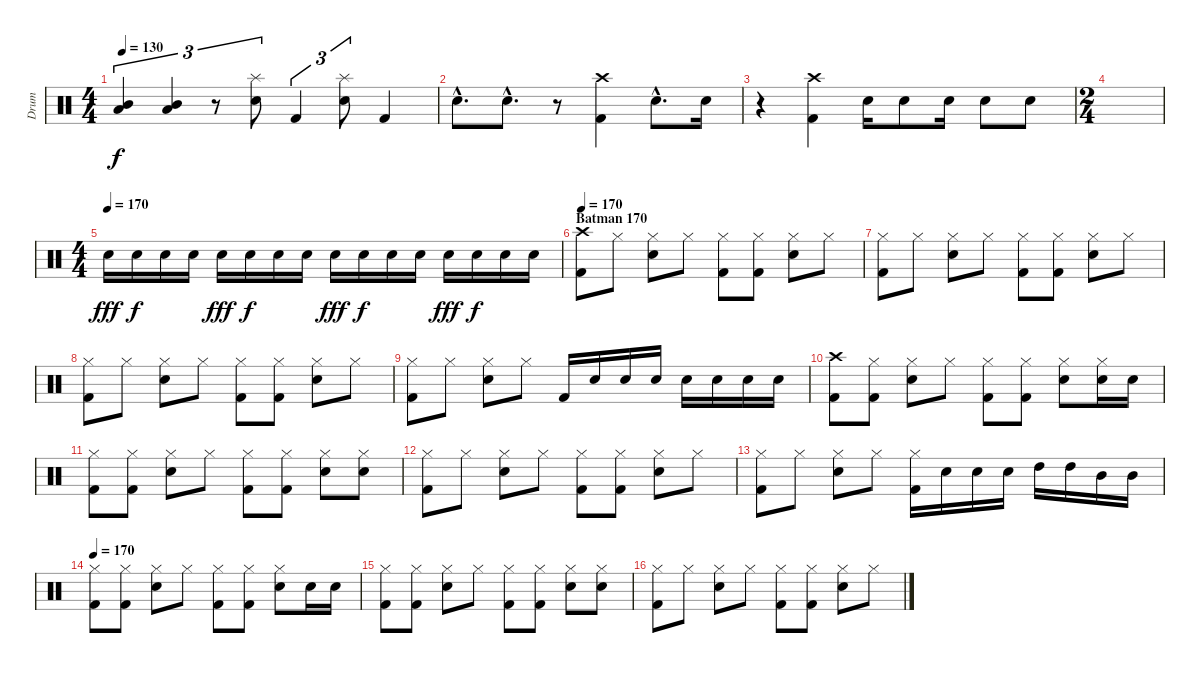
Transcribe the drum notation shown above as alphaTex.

\track ("Drum" "Drum") {instrument percussion}
\staff {score}
\articulation defaults
\ts (4 4)
\tempo 130
\clef neutral
\ks c
("Mid Tom (hit)" "Low Tom (hit)").4{tu (3 2) dy f} ("Mid Tom (hit)" "Low Tom (hit)").4{tu (3 2)} r.8{tu (3 2)} ("Splash (hit)" "Electric Snare (hit)").8{tu (3 2)} "Kick (hit) 2".4{tu (3 2)} ("Splash (hit)" "Electric Snare (hit)").8{tu (3 2)} "Kick (hit) 2".4 |
"Electric Snare (hit)"{hac}.8{d} "Electric Snare (hit)"{hac}.8{d} r.8 ("Crash high (hit)" "Kick (hit) 2").4 "Electric Snare (hit)"{hac}.8{d} "Electric Snare (hit)".16 |
r.4 ("Crash high (hit)" "Kick (hit) 2").4 "Electric Snare (hit)".16 "Electric Snare (hit)".8 "Electric Snare (hit)".16 "Electric Snare (hit)".8 "Electric Snare (hit)".8 |
\ts (2 4)
|
\ts (4 4)
\tempo (170)
"Electric Snare (hit)".16{dy fff} "Electric Snare (hit)".16{dy f} "Electric Snare (hit)".16 "Electric Snare (hit)".16 "Electric Snare (hit)".16{dy fff} "Electric Snare (hit)".16{dy f} "Electric Snare (hit)".16 "Electric Snare (hit)".16 "Electric Snare (hit)".16{dy fff} "Electric Snare (hit)".16{dy f} "Electric Snare (hit)".16 "Electric Snare (hit)".16 "Electric Snare (hit)".16{dy fff} "Electric Snare (hit)".16{dy f} "Electric Snare (hit)".16 "Electric Snare (hit)".16 |
\section ("" "Batman 170")
\tempo 170
("Crash high (hit)" "Kick (hit) 2").8 "Hi-Hat (closed)".8 ("Hi-Hat (closed)" "Electric Snare (hit)").8 "Hi-Hat (closed)".8 ("Hi-Hat (closed)" "Kick (hit) 2").8 ("Hi-Hat (closed)" "Kick (hit) 2").8 ("Hi-Hat (closed)" "Electric Snare (hit)").8 "Hi-Hat (closed)".8 |
("Hi-Hat (closed)" "Kick (hit) 2").8 "Hi-Hat (closed)".8 ("Hi-Hat (closed)" "Electric Snare (hit)").8 "Hi-Hat (closed)".8 ("Hi-Hat (closed)" "Kick (hit) 2").8 ("Hi-Hat (closed)" "Kick (hit) 2").8 ("Hi-Hat (closed)" "Electric Snare (hit)").8 "Hi-Hat (closed)".8 |
("Hi-Hat (closed)" "Kick (hit) 2").8 "Hi-Hat (closed)".8 ("Hi-Hat (closed)" "Electric Snare (hit)").8 "Hi-Hat (closed)".8 ("Hi-Hat (closed)" "Kick (hit) 2").8 ("Hi-Hat (closed)" "Kick (hit) 2").8 ("Hi-Hat (closed)" "Electric Snare (hit)").8 "Hi-Hat (closed)".8 |
("Hi-Hat (closed)" "Kick (hit) 2").8 "Hi-Hat (closed)".8 ("Hi-Hat (closed)" "Electric Snare (hit)").8 "Hi-Hat (closed)".8 "Kick (hit) 2".16 "Electric Snare (hit)".16 "Electric Snare (hit)".16 "Electric Snare (hit)".16 "Electric Snare (hit)".16 "Electric Snare (hit)".16 "Electric Snare (hit)".16 "Electric Snare (hit)".16 |
("Crash high (hit)" "Kick (hit) 2").8 ("Hi-Hat (closed)" "Kick (hit) 2").8 ("Hi-Hat (closed)" "Electric Snare (hit)").8 "Hi-Hat (closed)".8 ("Hi-Hat (closed)" "Kick (hit) 2").8 ("Hi-Hat (closed)" "Kick (hit) 2").8 ("Hi-Hat (closed)" "Electric Snare (hit)").8 ("Hi-Hat (closed)" "Electric Snare (hit)").16 "Electric Snare (hit)".16 |
("Hi-Hat (closed)" "Kick (hit) 2").8 ("Hi-Hat (closed)" "Kick (hit) 2").8 ("Hi-Hat (closed)" "Electric Snare (hit)").8 "Hi-Hat (closed)".8 ("Hi-Hat (closed)" "Kick (hit) 2").8 ("Hi-Hat (closed)" "Kick (hit) 2").8 ("Hi-Hat (closed)" "Electric Snare (hit)").8 ("Hi-Hat (closed)" "Electric Snare (hit)").8 |
("Hi-Hat (closed)" "Kick (hit) 2").8 "Hi-Hat (closed)".8 ("Hi-Hat (closed)" "Electric Snare (hit)").8 "Hi-Hat (closed)".8 ("Hi-Hat (closed)" "Kick (hit) 2").8 ("Hi-Hat (closed)" "Kick (hit) 2").8 ("Hi-Hat (closed)" "Electric Snare (hit)").8 "Hi-Hat (closed)".8 |
("Hi-Hat (closed)" "Kick (hit) 2").8 "Hi-Hat (closed)".8 ("Hi-Hat (closed)" "Electric Snare (hit)").8 "Hi-Hat (closed)".8 ("Hi-Hat (closed)" "Kick (hit) 2").16 "Electric Snare (hit)".16 "Electric Snare (hit)".16 "Electric Snare (hit)".16 "High Tom (hit)".16 "High Tom (hit)".16 "Mid Tom (hit)".16 "Mid Tom (hit)".16 |
\tempo 170
("Hi-Hat (closed)" "Kick (hit) 2").8 ("Hi-Hat (closed)" "Kick (hit) 2").8 ("Hi-Hat (closed)" "Electric Snare (hit)").8 "Hi-Hat (closed)".8 ("Hi-Hat (closed)" "Kick (hit) 2").8 ("Hi-Hat (closed)" "Kick (hit) 2").8 ("Hi-Hat (closed)" "Electric Snare (hit)").8 "Electric Snare (hit)".16 "Electric Snare (hit)".16 |
("Hi-Hat (closed)" "Kick (hit) 2").8 ("Hi-Hat (closed)" "Kick (hit) 2").8 ("Hi-Hat (closed)" "Electric Snare (hit)").8 "Hi-Hat (closed)".8 ("Hi-Hat (closed)" "Kick (hit) 2").8 ("Hi-Hat (closed)" "Kick (hit) 2").8 ("Hi-Hat (closed)" "Electric Snare (hit)").8 ("Hi-Hat (closed)" "Electric Snare (hit)").8 |
("Hi-Hat (closed)" "Kick (hit) 2").8 "Hi-Hat (closed)".8 ("Hi-Hat (closed)" "Electric Snare (hit)").8 "Hi-Hat (closed)".8 ("Hi-Hat (closed)" "Kick (hit) 2").8 ("Hi-Hat (closed)" "Kick (hit) 2").8 ("Hi-Hat (closed)" "Electric Snare (hit)").8 "Hi-Hat (closed)".8
